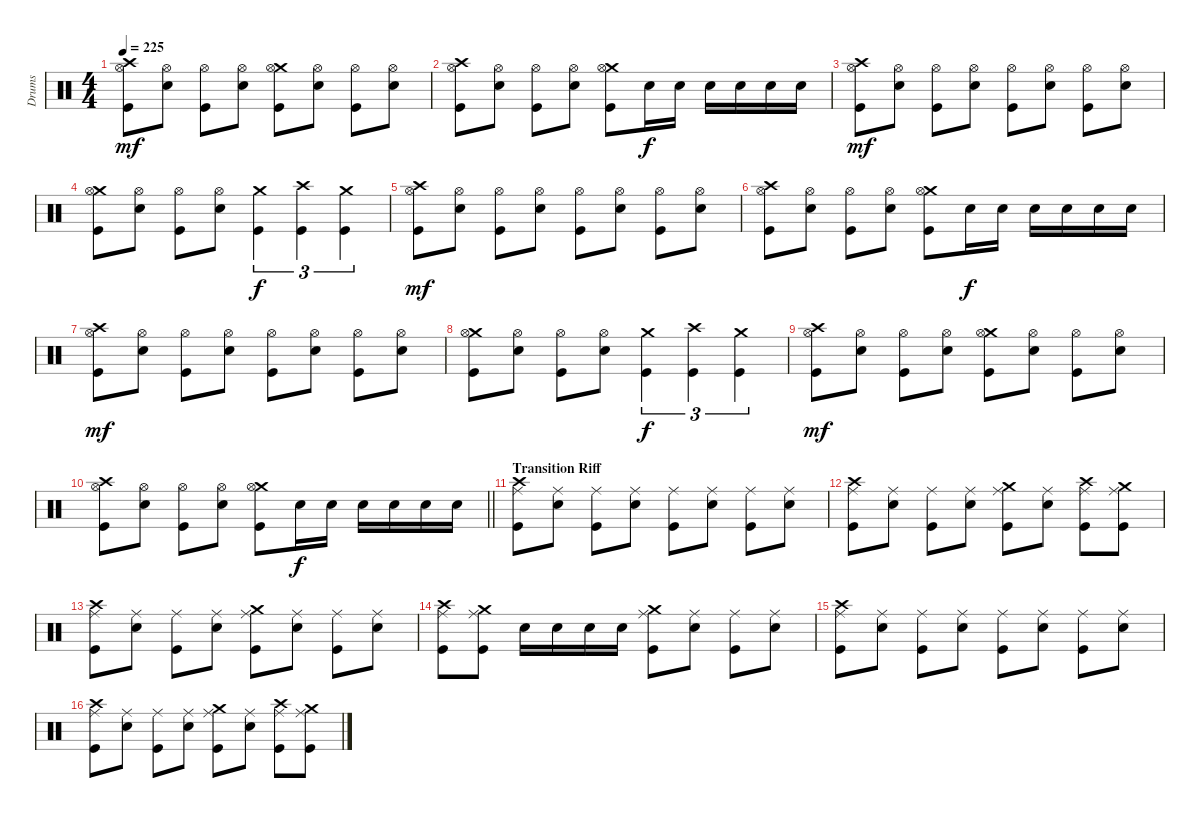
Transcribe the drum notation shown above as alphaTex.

\track ("Drums" "Drums") {instrument percussion}
\staff {score}
\articulation defaults
\ts (4 4)
\tempo 225
\clef neutral
\ks c
("Crash high (hit)" "Hi-Hat (open)" "Kick (hit)").8{dy mf} ("Hi-Hat (open)" "Electric Snare (hit)").8 ("Hi-Hat (open)" "Kick (hit)").8 ("Hi-Hat (open)" "Electric Snare (hit)").8 ("Crash medium (hit)" "Hi-Hat (open)" "Kick (hit)").8 ("Hi-Hat (open)" "Electric Snare (hit)").8 ("Hi-Hat (open)" "Kick (hit)").8 ("Hi-Hat (open)" "Electric Snare (hit)").8 |
("Crash high (hit)" "Hi-Hat (open)" "Kick (hit)").8 ("Hi-Hat (open)" "Electric Snare (hit)").8 ("Hi-Hat (open)" "Kick (hit)").8 ("Hi-Hat (open)" "Electric Snare (hit)").8 ("Crash medium (hit)" "Hi-Hat (open)" "Kick (hit)").8 "Electric Snare (hit)".16{dy f} "Electric Snare (hit)".16 "Electric Snare (hit)".16 "Electric Snare (hit)".16 "Electric Snare (hit)".16 "Electric Snare (hit)".16 |
("Crash high (hit)" "Hi-Hat (open)" "Kick (hit)").8{dy mf} ("Hi-Hat (open)" "Electric Snare (hit)").8 ("Hi-Hat (open)" "Kick (hit)").8 ("Hi-Hat (open)" "Electric Snare (hit)").8 ("Hi-Hat (open)" "Kick (hit)").8 ("Hi-Hat (open)" "Electric Snare (hit)").8 ("Hi-Hat (open)" "Kick (hit)").8 ("Hi-Hat (open)" "Electric Snare (hit)").8 |
("Crash medium (hit)" "Hi-Hat (open)" "Kick (hit)").8 ("Hi-Hat (open)" "Electric Snare (hit)").8 ("Hi-Hat (open)" "Kick (hit)").8 ("Hi-Hat (open)" "Electric Snare (hit)").8 ("Crash medium (hit)" "Kick (hit)").4{tu (3 2) dy f} ("Crash high (hit)" "Kick (hit)").4{tu (3 2)} ("Crash medium (hit)" "Kick (hit)").4{tu (3 2)} |
("Crash high (hit)" "Hi-Hat (open)" "Kick (hit)").8{dy mf} ("Hi-Hat (open)" "Electric Snare (hit)").8 ("Hi-Hat (open)" "Kick (hit)").8 ("Hi-Hat (open)" "Electric Snare (hit)").8 ("Hi-Hat (open)" "Kick (hit)").8 ("Hi-Hat (open)" "Electric Snare (hit)").8 ("Hi-Hat (open)" "Kick (hit)").8 ("Hi-Hat (open)" "Electric Snare (hit)").8 |
("Crash high (hit)" "Hi-Hat (open)" "Kick (hit)").8 ("Hi-Hat (open)" "Electric Snare (hit)").8 ("Hi-Hat (open)" "Kick (hit)").8 ("Hi-Hat (open)" "Electric Snare (hit)").8 ("Crash medium (hit)" "Hi-Hat (open)" "Kick (hit)").8 "Electric Snare (hit)".16{dy f} "Electric Snare (hit)".16 "Electric Snare (hit)".16 "Electric Snare (hit)".16 "Electric Snare (hit)".16 "Electric Snare (hit)".16 |
("Crash high (hit)" "Hi-Hat (open)" "Kick (hit)").8{dy mf} ("Hi-Hat (open)" "Electric Snare (hit)").8 ("Hi-Hat (open)" "Kick (hit)").8 ("Hi-Hat (open)" "Electric Snare (hit)").8 ("Hi-Hat (open)" "Kick (hit)").8 ("Hi-Hat (open)" "Electric Snare (hit)").8 ("Hi-Hat (open)" "Kick (hit)").8 ("Hi-Hat (open)" "Electric Snare (hit)").8 |
("Crash medium (hit)" "Hi-Hat (open)" "Kick (hit)").8 ("Hi-Hat (open)" "Electric Snare (hit)").8 ("Hi-Hat (open)" "Kick (hit)").8 ("Hi-Hat (open)" "Electric Snare (hit)").8 ("Crash medium (hit)" "Kick (hit)").4{tu (3 2) dy f} ("Crash high (hit)" "Kick (hit)").4{tu (3 2)} ("Crash medium (hit)" "Kick (hit)").4{tu (3 2)} |
("Crash high (hit)" "Hi-Hat (open)" "Kick (hit)").8{dy mf} ("Hi-Hat (open)" "Electric Snare (hit)").8 ("Hi-Hat (open)" "Kick (hit)").8 ("Hi-Hat (open)" "Electric Snare (hit)").8 ("Crash medium (hit)" "Hi-Hat (open)" "Kick (hit)").8 ("Hi-Hat (open)" "Electric Snare (hit)").8 ("Hi-Hat (open)" "Kick (hit)").8 ("Hi-Hat (open)" "Electric Snare (hit)").8 |
\barLineRight lightlight
("Crash high (hit)" "Hi-Hat (open)" "Kick (hit)").8 ("Hi-Hat (open)" "Electric Snare (hit)").8 ("Hi-Hat (open)" "Kick (hit)").8 ("Hi-Hat (open)" "Electric Snare (hit)").8 ("Crash medium (hit)" "Hi-Hat (open)" "Kick (hit)").8 "Electric Snare (hit)".16{dy f} "Electric Snare (hit)".16 "Electric Snare (hit)".16 "Electric Snare (hit)".16 "Electric Snare (hit)".16 "Electric Snare (hit)".16 |
\section ("" "Transition Riff")
("Crash high (hit)" "Ride (middle)" "Kick (hit)").8 ("Ride (middle)" "Electric Snare (hit)").8 ("Ride (middle)" "Kick (hit)").8 ("Ride (middle)" "Electric Snare (hit)").8 ("Ride (middle)" "Kick (hit)").8 ("Ride (middle)" "Electric Snare (hit)").8 ("Ride (middle)" "Kick (hit)").8 ("Ride (middle)" "Electric Snare (hit)").8 |
("Crash high (hit)" "Ride (middle)" "Kick (hit)").8 ("Ride (middle)" "Electric Snare (hit)").8 ("Ride (middle)" "Kick (hit)").8 ("Ride (middle)" "Electric Snare (hit)").8 ("Crash medium (hit)" "Ride (middle)" "Kick (hit)").8 ("Ride (middle)" "Electric Snare (hit)").8 ("Crash high (hit)" "Ride (middle)" "Kick (hit)").8 ("Crash medium (hit)" "Ride (middle)" "Kick (hit)").8 |
("Crash high (hit)" "Ride (middle)" "Kick (hit)").8 ("Ride (middle)" "Electric Snare (hit)").8 ("Ride (middle)" "Kick (hit)").8 ("Ride (middle)" "Electric Snare (hit)").8 ("Crash medium (hit)" "Ride (middle)" "Kick (hit)").8 ("Ride (middle)" "Electric Snare (hit)").8 ("Ride (middle)" "Kick (hit)").8 ("Ride (middle)" "Electric Snare (hit)").8 |
("Crash high (hit)" "Ride (middle)" "Kick (hit)").8 ("Crash medium (hit)" "Ride (middle)" "Kick (hit)").8 "Electric Snare (hit)".16 "Electric Snare (hit)".16 "Electric Snare (hit)".16 "Electric Snare (hit)".16 ("Crash medium (hit)" "Ride (middle)" "Kick (hit)").8 ("Ride (middle)" "Electric Snare (hit)").8 ("Ride (middle)" "Kick (hit)").8 ("Ride (middle)" "Electric Snare (hit)").8 |
("Crash high (hit)" "Ride (middle)" "Kick (hit)").8 ("Ride (middle)" "Electric Snare (hit)").8 ("Ride (middle)" "Kick (hit)").8 ("Ride (middle)" "Electric Snare (hit)").8 ("Ride (middle)" "Kick (hit)").8 ("Ride (middle)" "Electric Snare (hit)").8 ("Ride (middle)" "Kick (hit)").8 ("Ride (middle)" "Electric Snare (hit)").8 |
("Crash high (hit)" "Ride (middle)" "Kick (hit)").8 ("Ride (middle)" "Electric Snare (hit)").8 ("Ride (middle)" "Kick (hit)").8 ("Ride (middle)" "Electric Snare (hit)").8 ("Crash medium (hit)" "Ride (middle)" "Kick (hit)").8 ("Ride (middle)" "Electric Snare (hit)").8 ("Crash high (hit)" "Ride (middle)" "Kick (hit)").8 ("Crash medium (hit)" "Ride (middle)" "Kick (hit)").8
